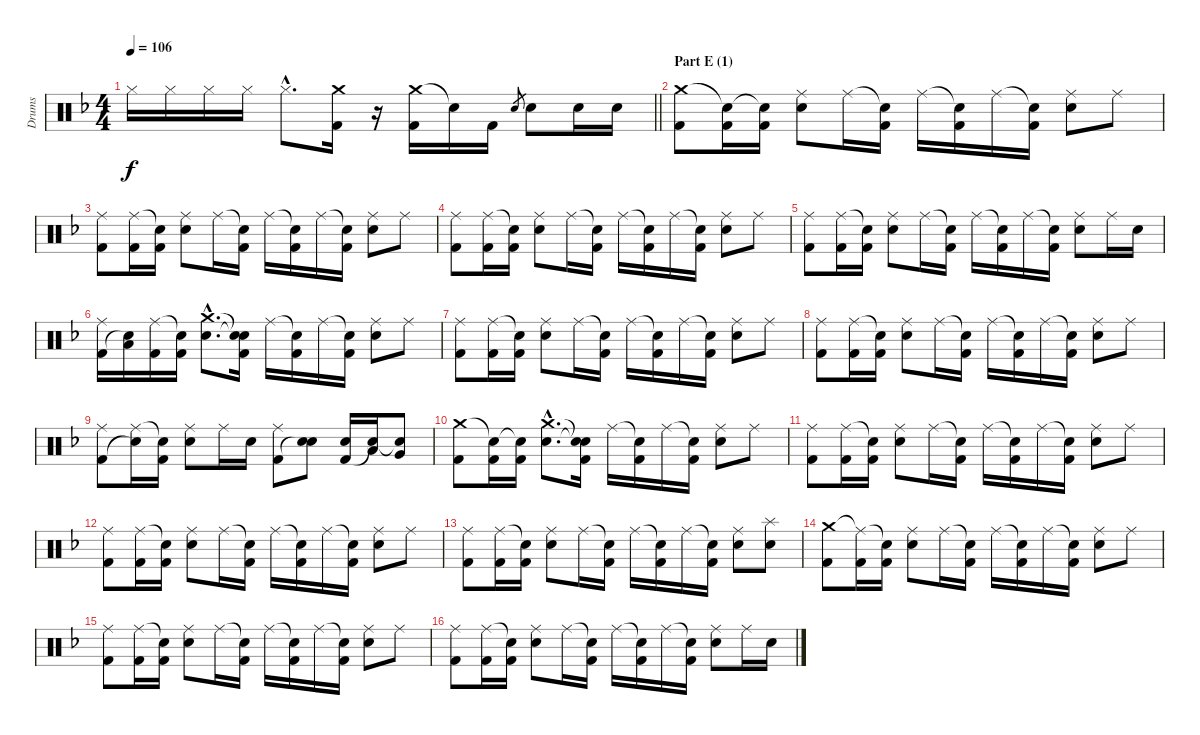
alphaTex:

\track ("Drums" "Drums") {instrument percussion}
\staff {score}
\articulation defaults
\ts (4 4)
\tempo 106
\clef neutral
\barLineRight lightlight
\ks f "Hi-Hat (closed)".16{dy f} "Hi-Hat (closed)".16 "Hi-Hat (closed)".16 "Hi-Hat (closed)".16 "Hi-Hat (closed)"{hac}.8{d}
("Crash medium (hit)" "Kick (hit) 2").16 r.16 ("Crash medium (hit)" "Kick (hit) 2").16 "Snare (hit)"{t}.16 "Kick (hit) 2".16 "Electric Snare (hit)".8{gr} "Electric Snare (hit)".8 "Electric Snare (hit)".16 "Electric Snare (hit)".16 |
\section ("" "Part E (1)")
("Crash medium (hit)" "Kick (hit) 2").8 ("Snare (hit)"{t} "Kick (hit) 2").16 ("Snare (hit)"{t} "Kick (hit) 2").16 ("Ride (middle)" "Electric Snare (hit)").8 "Ride (middle)".16 ("Snare (hit)"{t} "Kick (hit) 2").16 "Ride (middle)".16 ("Snare (hit)"{t} "Kick (hit) 2").16 "Ride (middle)".16 ("Snare (hit)"{t} "Kick (hit) 2").16 ("Ride (middle)" "Electric Snare (hit)").8 "Ride (middle)".8 |
("Ride (middle)" "Kick (hit) 2").8 ("Ride (middle)" "Kick (hit) 2").16 ("Snare (hit)"{t} "Kick (hit) 2").16 ("Ride (middle)" "Electric Snare (hit)").8 "Ride (middle)".16 ("Snare (hit)"{t} "Kick (hit) 2").16 "Ride (middle)".16 ("Snare (hit)"{t} "Kick (hit) 2").16 "Ride (middle)".16 ("Snare (hit)"{t} "Kick (hit) 2").16 ("Ride (middle)" "Electric Snare (hit)").8 "Ride (middle)".8 |
("Ride (middle)" "Kick (hit) 2").8 ("Ride (middle)" "Kick (hit) 2").16 ("Snare (hit)"{t} "Kick (hit) 2").16 ("Ride (middle)" "Electric Snare (hit)").8 "Ride (middle)".16 ("Snare (hit)"{t} "Kick (hit) 2").16 "Ride (middle)".16 ("Snare (hit)"{t} "Kick (hit) 2").16 "Ride (middle)".16 ("Snare (hit)"{t} "Kick (hit) 2").16 ("Ride (middle)" "Electric Snare (hit)").8 "Ride (middle)".8 |
("Ride (middle)" "Kick (hit) 2").8 ("Ride (middle)" "Kick (hit) 2").16 ("Snare (hit)"{t} "Kick (hit) 2").16 ("Ride (middle)" "Electric Snare (hit)").8 "Ride (middle)".16 ("Snare (hit)"{t} "Kick (hit) 2").16 "Ride (middle)".16 ("Snare (hit)"{t} "Kick (hit) 2").16 "Ride (middle)".16 ("Snare (hit)"{t} "Kick (hit) 2").16 ("Ride (middle)" "Electric Snare (hit)").8 "Ride (middle)".16 "Electric Snare (hit)".16 |
("Ride (middle)" "Kick (hit) 2").16 ("Low Tom (hit)" "Snare (hit)"{t}).16 ("Ride (middle)" "Kick (hit) 2").16 ("Snare (hit)"{t} "Kick (hit) 2").16 ("Crash medium (hit)"{hac} "Electric Snare (hit)"{hac}).8{d} ("Snare (hit)"{t} "Snare (hit)"{t} "Kick (hit) 2").16 "Ride (middle)".16 ("Snare (hit)"{t} "Kick (hit) 2").16 "Ride (middle)".16 ("Snare (hit)"{t} "Kick (hit) 2").16 ("Ride (middle)" "Electric Snare (hit)").8 "Ride (middle)".8 |
("Ride (middle)" "Kick (hit) 2").8 ("Ride (middle)" "Kick (hit) 2").16 ("Snare (hit)"{t} "Kick (hit) 2").16 ("Ride (middle)" "Electric Snare (hit)").8 "Ride (middle)".16 ("Snare (hit)"{t} "Kick (hit) 2").16 "Ride (middle)".16 ("Snare (hit)"{t} "Kick (hit) 2").16 "Ride (middle)".16 ("Snare (hit)"{t} "Kick (hit) 2").16 ("Ride (middle)" "Electric Snare (hit)").8 "Ride (middle)".8 |
("Ride (middle)" "Kick (hit) 2").8 ("Ride (middle)" "Kick (hit) 2").16 ("Snare (hit)"{t} "Kick (hit) 2").16 ("Ride (middle)" "Electric Snare (hit)").8 "Ride (middle)".16 ("Snare (hit)"{t} "Kick (hit) 2").16 "Ride (middle)".16 ("Snare (hit)"{t} "Kick (hit) 2").16 "Ride (middle)".16 ("Snare (hit)"{t} "Kick (hit) 2").16 ("Ride (middle)" "Electric Snare (hit)").8 "Ride (middle)".8 |
("Ride (middle)" "Kick (hit) 2").8 ("Ride (middle)" "Snare (hit)"{t}).16 ("Snare (hit)"{t} "Kick (hit) 2").16 ("Ride (middle)" "Electric Snare (hit)").8 "Ride (middle)".16 "Electric Snare (hit)".16 ("Ride (middle)" "Kick (hit) 2").8 ("Electric Snare (hit)" "Snare (hit)"{t}).8 ("Electric Snare (hit)" "Kick (hit) 2").16 ("Low Tom (hit)" "Snare (hit)"{t}).16 ("Very Low Tom (hit)" "Snare (hit)"{t}).8 |
("Crash medium (hit)" "Kick (hit) 2").8 ("Snare (hit)"{t} "Kick (hit) 2").16 ("Snare (hit)"{t} "Kick (hit) 2").16 ("Crash medium (hit)"{hac} "Electric Snare (hit)"{hac}).8{d} ("Snare (hit)"{t} "Snare (hit)"{t} "Kick (hit) 2").16 "Ride (middle)".16 ("Snare (hit)"{t} "Kick (hit) 2").16 "Ride (middle)".16 ("Snare (hit)"{t} "Kick (hit) 2").16 ("Ride (middle)" "Electric Snare (hit)").8 "Ride (middle)".8 |
("Ride (middle)" "Kick (hit) 2").8 ("Ride (middle)" "Kick (hit) 2").16 ("Snare (hit)"{t} "Kick (hit) 2").16 ("Ride (middle)" "Electric Snare (hit)").8 "Ride (middle)".16 ("Snare (hit)"{t} "Kick (hit) 2").16 "Ride (middle)".16 ("Snare (hit)"{t} "Kick (hit) 2").16 "Ride (middle)".16 ("Snare (hit)"{t} "Kick (hit) 2").16 ("Ride (middle)" "Electric Snare (hit)").8 "Ride (middle)".8 |
("Ride (middle)" "Kick (hit) 2").8 ("Ride (middle)" "Kick (hit) 2").16 ("Snare (hit)"{t} "Kick (hit) 2").16 ("Ride (middle)" "Electric Snare (hit)").8 "Ride (middle)".16 ("Snare (hit)"{t} "Kick (hit) 2").16 "Ride (middle)".16 ("Snare (hit)"{t} "Kick (hit) 2").16 "Ride (middle)".16 ("Snare (hit)"{t} "Kick (hit) 2").16 ("Ride (middle)" "Electric Snare (hit)").8 "Ride (middle)".8 |
("Ride (middle)" "Kick (hit) 2").8 ("Ride (middle)" "Kick (hit) 2").16 ("Snare (hit)"{t} "Kick (hit) 2").16 ("Ride (middle)" "Electric Snare (hit)").8 "Ride (middle)".16 ("Snare (hit)"{t} "Kick (hit) 2").16 "Ride (middle)".16 ("Snare (hit)"{t} "Kick (hit) 2").16 "Ride (middle)".16 ("Snare (hit)"{t} "Kick (hit) 2").16 ("Ride (middle)" "Electric Snare (hit)").8 ("Splash (hit)" "Electric Snare (hit)").8 |
("Crash medium (hit)" "Kick (hit) 2").8 ("Ride (middle)"{t} "Kick (hit) 2").16 ("Snare (hit)"{t} "Kick (hit) 2").16 ("Ride (middle)" "Electric Snare (hit)").8 "Ride (middle)".16 ("Snare (hit)"{t} "Kick (hit) 2").16 "Ride (middle)".16 ("Snare (hit)"{t} "Kick (hit) 2").16 "Ride (middle)".16 ("Snare (hit)"{t} "Kick (hit) 2").16 ("Ride (middle)" "Electric Snare (hit)").8 "Ride (middle)".8 |
("Ride (middle)" "Kick (hit) 2").8 ("Ride (middle)" "Kick (hit) 2").16 ("Snare (hit)"{t} "Kick (hit) 2").16 ("Ride (middle)" "Electric Snare (hit)").8 "Ride (middle)".16 ("Snare (hit)"{t} "Kick (hit) 2").16 "Ride (middle)".16 ("Snare (hit)"{t} "Kick (hit) 2").16 "Ride (middle)".16 ("Snare (hit)"{t} "Kick (hit) 2").16 ("Ride (middle)" "Electric Snare (hit)").8 "Ride (middle)".8 |
("Ride (middle)" "Kick (hit) 2").8 ("Ride (middle)" "Kick (hit) 2").16 ("Snare (hit)"{t} "Kick (hit) 2").16 ("Ride (middle)" "Electric Snare (hit)").8 "Ride (middle)".16 ("Snare (hit)"{t} "Kick (hit) 2").16 "Ride (middle)".16 ("Snare (hit)"{t} "Kick (hit) 2").16 "Ride (middle)".16 ("Snare (hit)"{t} "Kick (hit) 2").16 ("Ride (middle)" "Electric Snare (hit)").8 "Ride (middle)".16 "Electric Snare (hit)".16
